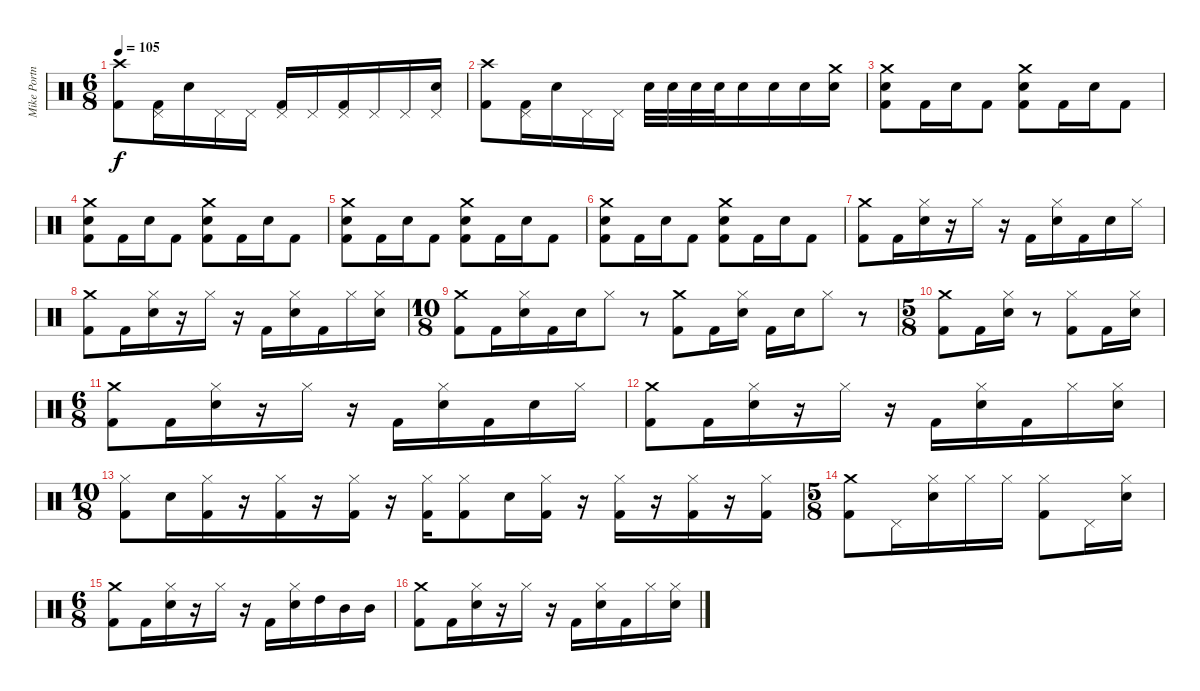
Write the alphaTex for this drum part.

\track ("Mike Portnoy" "Mike Portn") {instrument percussion}
\staff {score}
\articulation defaults
\ts (6 8)
\tempo 105
\clef neutral
\ks c
("Crash high (hit)" "Kick (hit) 2").8{dy f} ("Pedal Hi-Hat (hit)" "Kick (hit) 2").16 "Electric Snare (hit)".16 "Pedal Hi-Hat (hit)".16 "Pedal Hi-Hat (hit)".16 ("Pedal Hi-Hat (hit)" "Kick (hit) 2").16 "Pedal Hi-Hat (hit)".16 ("Pedal Hi-Hat (hit)" "Kick (hit) 2").16 "Pedal Hi-Hat (hit)".16 "Pedal Hi-Hat (hit)".16 ("Pedal Hi-Hat (hit)" "Electric Snare (hit)").16 |
("Crash high (hit)" "Kick (hit) 2").8 ("Pedal Hi-Hat (hit)" "Kick (hit) 2").16 "Electric Snare (hit)".16 "Pedal Hi-Hat (hit)".16 "Pedal Hi-Hat (hit)".16 "Electric Snare (hit)".32 "Electric Snare (hit)".32 "Electric Snare (hit)".32 "Electric Snare (hit)".32 "Electric Snare (hit)".16 "Electric Snare (hit)".16 "Electric Snare (hit)".16 ("Crash medium (hit)" "Electric Snare (hit)").16 |
("Crash medium (hit)" "Electric Snare (hit)" "Kick (hit) 2").8 "Kick (hit) 2".16 "Electric Snare (hit)".16 "Kick (hit) 2".8 ("Crash medium (hit)" "Electric Snare (hit)" "Kick (hit) 2").8 "Kick (hit) 2".16 "Electric Snare (hit)".16 "Kick (hit) 2".8 |
("Crash medium (hit)" "Electric Snare (hit)" "Kick (hit) 2").8 "Kick (hit) 2".16 "Electric Snare (hit)".16 "Kick (hit) 2".8 ("Crash medium (hit)" "Electric Snare (hit)" "Kick (hit) 2").8 "Kick (hit) 2".16 "Electric Snare (hit)".16 "Kick (hit) 2".8 |
("Crash medium (hit)" "Electric Snare (hit)" "Kick (hit) 2").8 "Kick (hit) 2".16 "Electric Snare (hit)".16 "Kick (hit) 2".8 ("Crash medium (hit)" "Electric Snare (hit)" "Kick (hit) 2").8 "Kick (hit) 2".16 "Electric Snare (hit)".16 "Kick (hit) 2".8 |
("Crash medium (hit)" "Electric Snare (hit)" "Kick (hit) 2").8 "Kick (hit) 2".16 "Electric Snare (hit)".16 "Kick (hit) 2".8 ("Crash medium (hit)" "Electric Snare (hit)" "Kick (hit) 2").8 "Kick (hit) 2".16 "Electric Snare (hit)".16 "Kick (hit) 2".8 |
("Crash medium (hit)" "Kick (hit) 2").8 "Kick (hit) 2".16 ("Hi-Hat (closed)" "Electric Snare (hit)").16 r.16 "Hi-Hat (closed)".16 r.16 "Kick (hit) 2".16 ("Hi-Hat (closed)" "Electric Snare (hit)").16 "Kick (hit) 2".16 "Electric Snare (hit)".16 "Hi-Hat (closed)".16 |
("Crash medium (hit)" "Kick (hit) 2").8 "Kick (hit) 2".16 ("Hi-Hat (closed)" "Electric Snare (hit)").16 r.16 "Hi-Hat (closed)".16 r.16 "Kick (hit) 2".16 ("Hi-Hat (closed)" "Electric Snare (hit)").16 "Kick (hit) 2".16 "Hi-Hat (closed)".16 ("Hi-Hat (closed)" "Electric Snare (hit)").16 |
\ts (10 8)
("Crash medium (hit)" "Kick (hit) 2").8 "Kick (hit) 2".16 ("Hi-Hat (closed)" "Electric Snare (hit)").16 "Kick (hit) 2".16 "Electric Snare (hit)".16 "Hi-Hat (closed)".8 r.8 ("Crash medium (hit)" "Kick (hit) 2").8 "Kick (hit) 2".16 ("Hi-Hat (closed)" "Electric Snare (hit)").16 "Kick (hit) 2".16 "Electric Snare (hit)".16 "Hi-Hat (closed)".8 r.8 |
\ts (5 8)
("Crash medium (hit)" "Kick (hit) 2").8 "Kick (hit) 2".16 ("Hi-Hat (closed)" "Electric Snare (hit)").16 r.8 ("Hi-Hat (closed)" "Kick (hit) 2").8 "Kick (hit) 2".16 ("Hi-Hat (closed)" "Electric Snare (hit)").16 |
\ts (6 8)
("Crash medium (hit)" "Kick (hit) 2").8 "Kick (hit) 2".16 ("Hi-Hat (closed)" "Electric Snare (hit)").16 r.16 "Hi-Hat (closed)".16 r.16 "Kick (hit) 2".16 ("Hi-Hat (closed)" "Electric Snare (hit)").16 "Kick (hit) 2".16 "Electric Snare (hit)".16 "Hi-Hat (closed)".16 |
("Crash medium (hit)" "Kick (hit) 2").8 "Kick (hit) 2".16 ("Hi-Hat (closed)" "Electric Snare (hit)").16 r.16 "Hi-Hat (closed)".16 r.16 "Kick (hit) 2".16 ("Hi-Hat (closed)" "Electric Snare (hit)").16 "Kick (hit) 2".16 "Hi-Hat (closed)".16 ("Hi-Hat (closed)" "Electric Snare (hit)").16 |
\ts (10 8)
("Hi-Hat (closed)" "Kick (hit) 2").8 "Electric Snare (hit)".16 ("Hi-Hat (closed)" "Kick (hit) 2").16 r.16 ("Hi-Hat (closed)" "Kick (hit) 2").16 r.16 ("Hi-Hat (closed)" "Kick (hit) 2").16 r.16 ("Hi-Hat (closed)" "Kick (hit) 2").16 ("Hi-Hat (closed)" "Kick (hit) 2").8 "Electric Snare (hit)".16 ("Hi-Hat (closed)" "Kick (hit) 2").16 r.16 ("Hi-Hat (closed)" "Kick (hit) 2").16 r.16 ("Hi-Hat (closed)" "Kick (hit) 2").16 r.16 ("Hi-Hat (closed)" "Kick (hit) 2").16 |
\ts (5 8)
("Crash medium (hit)" "Kick (hit) 2").8 "Pedal Hi-Hat (hit)".16 ("Hi-Hat (closed)" "Electric Snare (hit)").16 "Hi-Hat (closed)".16 "Hi-Hat (closed)".16 ("Hi-Hat (closed)" "Kick (hit) 2").8 "Pedal Hi-Hat (hit)".16 ("Hi-Hat (closed)" "Electric Snare (hit)").16 |
\ts (6 8)
("Crash medium (hit)" "Kick (hit) 2").8 "Kick (hit) 2".16 ("Hi-Hat (closed)" "Electric Snare (hit)").16 r.16 "Hi-Hat (closed)".16 r.16 "Kick (hit) 2".16 ("Hi-Hat (closed)" "Electric Snare (hit)").16 "High Tom (hit)".16 "Mid Tom (hit)".16 "Mid Tom (hit)".16 |
("Crash medium (hit)" "Kick (hit) 2").8 "Kick (hit) 2".16 ("Hi-Hat (closed)" "Electric Snare (hit)").16 r.16 "Hi-Hat (closed)".16 r.16 "Kick (hit) 2".16 ("Hi-Hat (closed)" "Electric Snare (hit)").16 "Kick (hit) 2".16 "Hi-Hat (closed)".16 ("Hi-Hat (closed)" "Electric Snare (hit)").16
